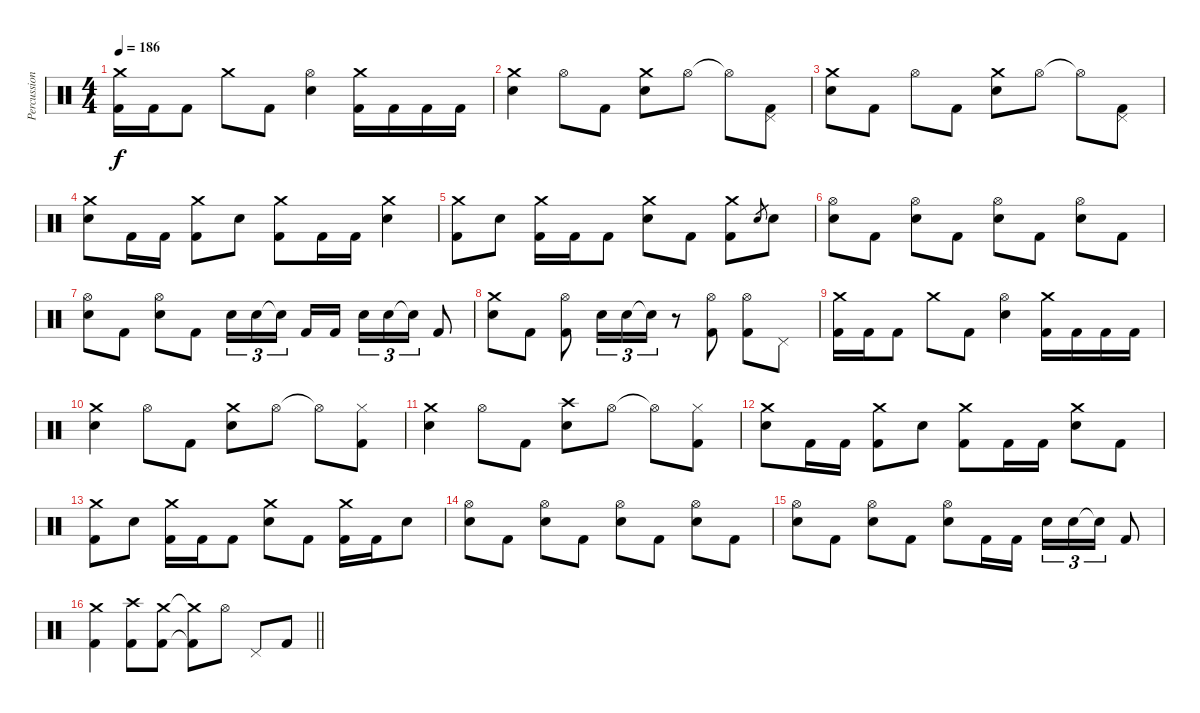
\track ("Percussion" "Percussion") {instrument percussion}
\staff {score}
\articulation defaults
\ts (4 4)
\tempo 186
\clef neutral
\ks c
("Crash medium (hit)" "Kick (hit) 2").16{dy f} "Kick (hit) 2".16 "Kick (hit) 2".8 "Crash medium (hit)".8 "Kick (hit) 2".8 ("Hi-Hat (open)" "Electric Snare (hit)").4 ("Crash medium (hit)" "Kick (hit) 2").16 "Kick (hit) 2".16 "Kick (hit) 2".16 "Kick (hit) 2".16 |
("Crash medium (hit)" "Electric Snare (hit)").4 "Hi-Hat (open)".8 "Kick (hit) 2".8 ("Crash medium (hit)" "Electric Snare (hit)").8 "Hi-Hat (open)".8 "Hi-Hat (open)"{t}.8 ("Pedal Hi-Hat (hit)" "Kick (hit) 2").8 |
("Crash medium (hit)" "Electric Snare (hit)").8 "Kick (hit) 2".8 "Hi-Hat (open)".8 "Kick (hit) 2".8 ("Crash medium (hit)" "Electric Snare (hit)").8 "Hi-Hat (open)".8 "Hi-Hat (open)"{t}.8 ("Pedal Hi-Hat (hit)" "Kick (hit) 2").8 |
("Crash medium (hit)" "Electric Snare (hit)").8 "Kick (hit) 2".16 "Kick (hit) 2".16 ("Crash medium (hit)" "Kick (hit) 2").8 "Electric Snare (hit)".8 ("Crash medium (hit)" "Kick (hit) 2").8 "Kick (hit) 2".16 "Kick (hit) 2".16 ("Crash medium (hit)" "Electric Snare (hit)").4 |
("Crash medium (hit)" "Kick (hit) 2").8 "Electric Snare (hit)".8 ("Crash medium (hit)" "Kick (hit) 2").16 "Kick (hit) 2".16 "Kick (hit) 2".8 ("Crash medium (hit)" "Electric Snare (hit)").8 "Kick (hit) 2".8 ("Crash medium (hit)" "Kick (hit) 2").8 "Electric Snare (hit)".8{gr} "Electric Snare (hit)".8 |
("Hi-Hat (open)" "Electric Snare (hit)").8 "Kick (hit) 2".8 ("Hi-Hat (open)" "Electric Snare (hit)").8 "Kick (hit) 2".8 ("Hi-Hat (open)" "Electric Snare (hit)").8 "Kick (hit) 2".8 ("Hi-Hat (open)" "Electric Snare (hit)").8 "Kick (hit) 2".8 |
("Hi-Hat (open)" "Electric Snare (hit)").8 "Kick (hit) 2".8 ("Hi-Hat (open)" "Electric Snare (hit)").8 "Kick (hit) 2".8 "Electric Snare (hit)".16{tu (3 2)} "Electric Snare (hit)".16{tu (3 2)} "Electric Snare (hit)"{t}.16{tu (3 2) beam splitsecondary} "Kick (hit) 2".16 "Kick (hit) 2".16 "Electric Snare (hit)".16{tu (3 2)} "Electric Snare (hit)".16{tu (3 2)} "Electric Snare (hit)"{t}.16{tu (3 2)} "Kick (hit) 2".8 |
("Crash medium (hit)" "Electric Snare (hit)").8 "Kick (hit) 2".8 ("Hi-Hat (open)" "Kick (hit) 2").8 "Electric Snare (hit)".16{tu (3 2)} "Electric Snare (hit)".16{tu (3 2)} "Electric Snare (hit)"{t}.16{tu (3 2)} r.8 ("Hi-Hat (open)" "Kick (hit) 2").8 ("Hi-Hat (open)" "Kick (hit) 2").8 "Pedal Hi-Hat (hit)".8 |
("Crash medium (hit)" "Kick (hit) 2").16 "Kick (hit) 2".16 "Kick (hit) 2".8 "Crash medium (hit)".8 "Kick (hit) 2".8 ("Hi-Hat (open)" "Electric Snare (hit)").4 ("Crash medium (hit)" "Kick (hit) 2").16 "Kick (hit) 2".16 "Kick (hit) 2".16 "Kick (hit) 2".16 |
("Crash medium (hit)" "Electric Snare (hit)").4 "Hi-Hat (open)".8 "Kick (hit) 2".8 ("Crash medium (hit)" "Electric Snare (hit)").8 "Hi-Hat (open)".8 "Hi-Hat (open)"{t}.8 ("Hi-Hat (closed)" "Kick (hit) 2").8 |
("Crash medium (hit)" "Electric Snare (hit)").4 "Hi-Hat (open)".8 "Kick (hit) 2".8 ("Crash high (hit)" "Electric Snare (hit)").8 "Hi-Hat (open)".8 "Hi-Hat (open)"{t}.8 ("Hi-Hat (closed)" "Kick (hit) 2").8 |
("Crash medium (hit)" "Electric Snare (hit)").8 "Kick (hit) 2".16 "Kick (hit) 2".16 ("Crash medium (hit)" "Kick (hit) 2").8 "Electric Snare (hit)".8 ("Crash medium (hit)" "Kick (hit) 2").8 "Kick (hit) 2".16 "Kick (hit) 2".16 ("Crash medium (hit)" "Electric Snare (hit)").8 "Kick (hit) 2".8 |
("Crash medium (hit)" "Kick (hit) 2").8 "Electric Snare (hit)".8 ("Crash medium (hit)" "Kick (hit) 2").16 "Kick (hit) 2".16 "Kick (hit) 2".8 ("Crash medium (hit)" "Electric Snare (hit)").8 "Kick (hit) 2".8 ("Crash medium (hit)" "Kick (hit) 2").16 "Kick (hit) 2".16 "Electric Snare (hit)".8 |
("Hi-Hat (open)" "Electric Snare (hit)").8 "Kick (hit) 2".8 ("Hi-Hat (open)" "Electric Snare (hit)").8 "Kick (hit) 2".8 ("Hi-Hat (open)" "Electric Snare (hit)").8 "Kick (hit) 2".8 ("Hi-Hat (open)" "Electric Snare (hit)").8 "Kick (hit) 2".8 |
("Hi-Hat (open)" "Electric Snare (hit)").8 "Kick (hit) 2".8 ("Hi-Hat (open)" "Electric Snare (hit)").8 "Kick (hit) 2".8 ("Hi-Hat (open)" "Electric Snare (hit)").8 "Kick (hit) 2".16 "Kick (hit) 2".16 "Electric Snare (hit)".16{tu (3 2)} "Electric Snare (hit)".16{tu (3 2)} "Electric Snare (hit)"{t}.16{tu (3 2)} "Kick (hit) 2".8 |
\barLineRight lightlight
("Crash medium (hit)" "Kick (hit) 2").4 ("Crash high (hit)" "Kick (hit) 2").8 ("Crash medium (hit)" "Kick (hit) 2").8 ("Crash medium (hit)"{t} "Kick (hit) 2"{t}).8 "Hi-Hat (open)".8 "Pedal Hi-Hat (hit)".8 "Kick (hit) 2".8
